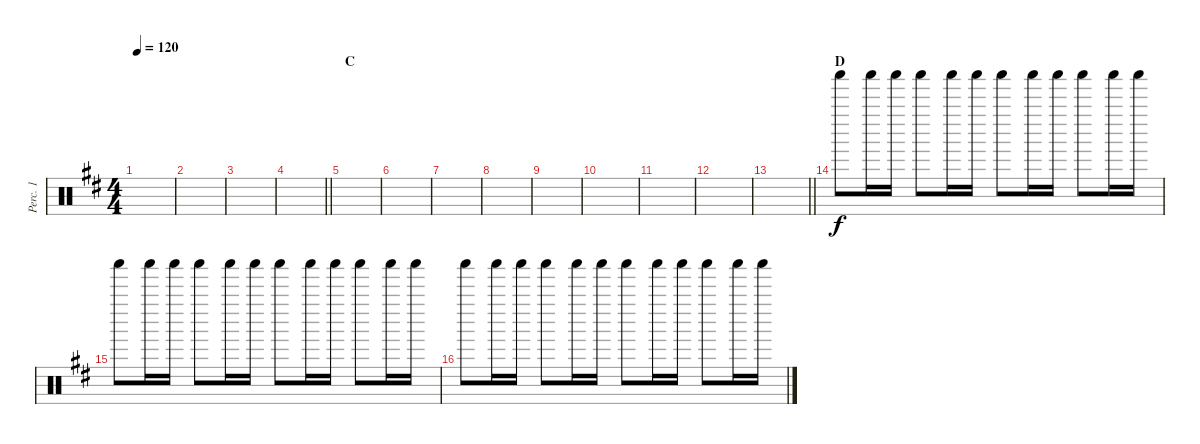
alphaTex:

\track ("Perc. 1" "Perc. 1") {instrument percussion}
\staff {score}
\articulation defaults
\ts (4 4)
\tempo 120
\clef neutral
\ks d
|
|
|
\barLineRight lightlight
|
\section ("" "C")
|
|
|
|
|
|
|
|
\barLineRight lightlight
|
\section ("" "D")
"Shaker (hit)".8 "Shaker (hit)".16 "Shaker (hit)".16 "Shaker (hit)".8 "Shaker (hit)".16 "Shaker (hit)".16 "Shaker (hit)".8 "Shaker (hit)".16 "Shaker (hit)".16 "Shaker (hit)".8 "Shaker (hit)".16 "Shaker (hit)".16 |
"Shaker (hit)".8 "Shaker (hit)".16 "Shaker (hit)".16 "Shaker (hit)".8 "Shaker (hit)".16 "Shaker (hit)".16 "Shaker (hit)".8 "Shaker (hit)".16 "Shaker (hit)".16 "Shaker (hit)".8 "Shaker (hit)".16 "Shaker (hit)".16 |
"Shaker (hit)".8 "Shaker (hit)".16 "Shaker (hit)".16 "Shaker (hit)".8 "Shaker (hit)".16 "Shaker (hit)".16 "Shaker (hit)".8 "Shaker (hit)".16 "Shaker (hit)".16 "Shaker (hit)".8 "Shaker (hit)".16 "Shaker (hit)".16
